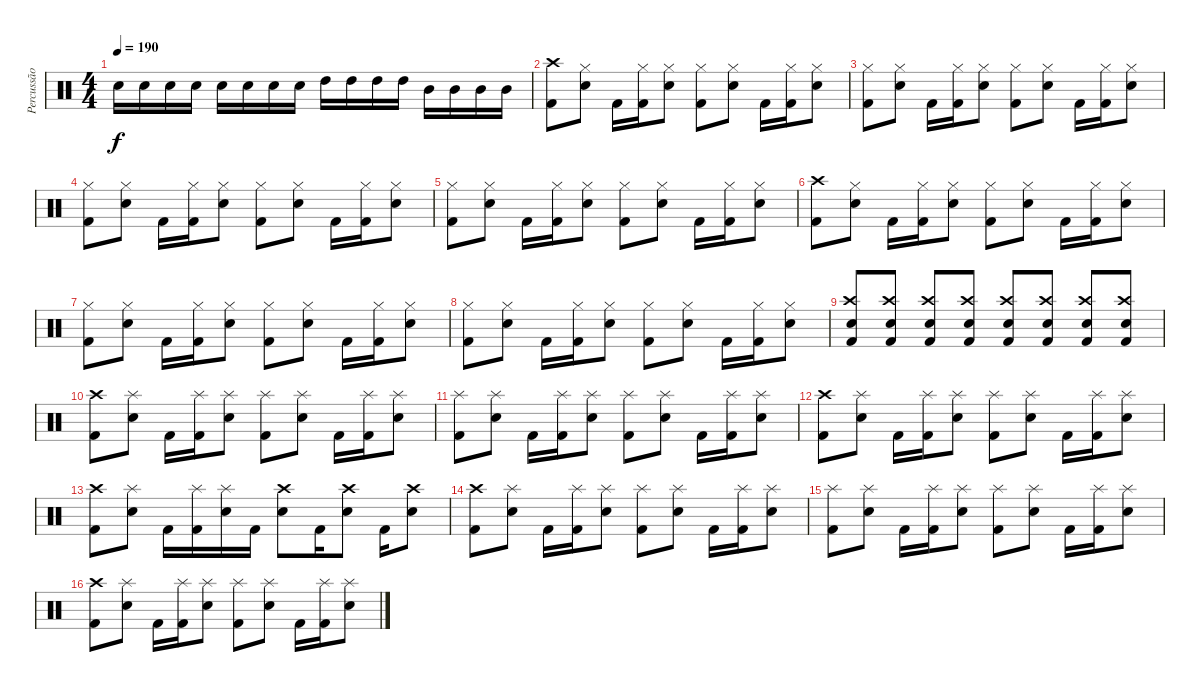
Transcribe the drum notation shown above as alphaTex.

\track ("Percussão" "Percussão") {instrument percussion}
\staff {score}
\articulation defaults
\ts (4 4)
\tempo 190
\clef neutral
\ks c "Electric Snare (hit)".16{dy f} "Electric Snare (hit)".16 "Electric Snare (hit)".16 "Electric Snare (hit)".16 "Electric Snare (hit)".16 "Electric Snare (hit)".16 "Electric Snare (hit)".16 "Electric Snare (hit)".16 "High Tom (hit)".16 "High Tom (hit)".16 "High Tom (hit)".16 "High Tom (hit)".16 "Mid Tom (hit)".16 "Mid Tom (hit)".16 "Mid Tom (hit)".16 "Mid Tom (hit)".16
|
("Crash high (hit)" "Kick (hit) 2").8 ("Hi-Hat (closed)" "Electric Snare (hit)").8 "Kick (hit) 2".16 ("Hi-Hat (closed)" "Kick (hit) 2").16 ("Hi-Hat (closed)" "Electric Snare (hit)").8 ("Hi-Hat (closed)" "Kick (hit) 2").8 ("Hi-Hat (closed)" "Electric Snare (hit)").8 "Kick (hit) 2".16 ("Hi-Hat (closed)" "Kick (hit) 2").16 ("Hi-Hat (closed)" "Electric Snare (hit)").8 |
("Hi-Hat (closed)" "Kick (hit) 2").8 ("Hi-Hat (closed)" "Electric Snare (hit)").8 "Kick (hit) 2".16 ("Hi-Hat (closed)" "Kick (hit) 2").16 ("Hi-Hat (closed)" "Electric Snare (hit)").8 ("Hi-Hat (closed)" "Kick (hit) 2").8 ("Hi-Hat (closed)" "Electric Snare (hit)").8 "Kick (hit) 2".16 ("Hi-Hat (closed)" "Kick (hit) 2").16 ("Hi-Hat (closed)" "Electric Snare (hit)").8 |
("Hi-Hat (closed)" "Kick (hit) 2").8 ("Hi-Hat (closed)" "Electric Snare (hit)").8 "Kick (hit) 2".16 ("Hi-Hat (closed)" "Kick (hit) 2").16 ("Hi-Hat (closed)" "Electric Snare (hit)").8 ("Hi-Hat (closed)" "Kick (hit) 2").8 ("Hi-Hat (closed)" "Electric Snare (hit)").8 "Kick (hit) 2".16 ("Hi-Hat (closed)" "Kick (hit) 2").16 ("Hi-Hat (closed)" "Electric Snare (hit)").8 |
("Hi-Hat (closed)" "Kick (hit) 2").8 ("Hi-Hat (closed)" "Electric Snare (hit)").8 "Kick (hit) 2".16 ("Hi-Hat (closed)" "Kick (hit) 2").16 ("Hi-Hat (closed)" "Electric Snare (hit)").8 ("Hi-Hat (closed)" "Kick (hit) 2").8 ("Hi-Hat (closed)" "Electric Snare (hit)").8 "Kick (hit) 2".16 ("Hi-Hat (closed)" "Kick (hit) 2").16 ("Hi-Hat (closed)" "Electric Snare (hit)").8 |
("Crash high (hit)" "Kick (hit) 2").8 ("Hi-Hat (closed)" "Electric Snare (hit)").8 "Kick (hit) 2".16 ("Hi-Hat (closed)" "Kick (hit) 2").16 ("Hi-Hat (closed)" "Electric Snare (hit)").8 ("Hi-Hat (closed)" "Kick (hit) 2").8 ("Hi-Hat (closed)" "Electric Snare (hit)").8 "Kick (hit) 2".16 ("Hi-Hat (closed)" "Kick (hit) 2").16 ("Hi-Hat (closed)" "Electric Snare (hit)").8 |
("Hi-Hat (closed)" "Kick (hit) 2").8 ("Hi-Hat (closed)" "Electric Snare (hit)").8 "Kick (hit) 2".16 ("Hi-Hat (closed)" "Kick (hit) 2").16 ("Hi-Hat (closed)" "Electric Snare (hit)").8 ("Hi-Hat (closed)" "Kick (hit) 2").8 ("Hi-Hat (closed)" "Electric Snare (hit)").8 "Kick (hit) 2".16 ("Hi-Hat (closed)" "Kick (hit) 2").16 ("Hi-Hat (closed)" "Electric Snare (hit)").8 |
("Hi-Hat (closed)" "Kick (hit) 2").8 ("Hi-Hat (closed)" "Electric Snare (hit)").8 "Kick (hit) 2".16 ("Hi-Hat (closed)" "Kick (hit) 2").16 ("Hi-Hat (closed)" "Electric Snare (hit)").8 ("Hi-Hat (closed)" "Kick (hit) 2").8 ("Hi-Hat (closed)" "Electric Snare (hit)").8 "Kick (hit) 2".16 ("Hi-Hat (closed)" "Kick (hit) 2").16 ("Hi-Hat (closed)" "Electric Snare (hit)").8 |
("Crash high (hit)" "Electric Snare (hit)" "Kick (hit) 2").8 ("Crash high (hit)" "Electric Snare (hit)" "Kick (hit) 2").8 ("Crash high (hit)" "Electric Snare (hit)" "Kick (hit) 2").8 ("Crash high (hit)" "Electric Snare (hit)" "Kick (hit) 2").8 ("Crash high (hit)" "Electric Snare (hit)" "Kick (hit) 2").8 ("Crash high (hit)" "Electric Snare (hit)" "Kick (hit) 2").8 ("Crash high (hit)" "Electric Snare (hit)" "Kick (hit) 2").8 ("Crash high (hit)" "Electric Snare (hit)" "Kick (hit) 2").8 |
("Crash high (hit)" "Kick (hit) 2").8 ("Splash (hit)" "Electric Snare (hit)").8 "Kick (hit) 2".16 ("Splash (hit)" "Kick (hit) 2").16 ("Splash (hit)" "Electric Snare (hit)").8 ("Splash (hit)" "Kick (hit) 2").8 ("Splash (hit)" "Electric Snare (hit)").8 "Kick (hit) 2".16 ("Splash (hit)" "Kick (hit) 2").16 ("Splash (hit)" "Electric Snare (hit)").8 |
("Splash (hit)" "Kick (hit) 2").8 ("Splash (hit)" "Electric Snare (hit)").8 "Kick (hit) 2".16 ("Splash (hit)" "Kick (hit) 2").16 ("Splash (hit)" "Electric Snare (hit)").8 ("Splash (hit)" "Kick (hit) 2").8 ("Splash (hit)" "Electric Snare (hit)").8 "Kick (hit) 2".16 ("Splash (hit)" "Kick (hit) 2").16 ("Splash (hit)" "Electric Snare (hit)").8 |
("Crash high (hit)" "Kick (hit) 2").8 ("Splash (hit)" "Electric Snare (hit)").8 "Kick (hit) 2".16 ("Splash (hit)" "Kick (hit) 2").16 ("Splash (hit)" "Electric Snare (hit)").8 ("Splash (hit)" "Kick (hit) 2").8 ("Splash (hit)" "Electric Snare (hit)").8 "Kick (hit) 2".16 ("Splash (hit)" "Kick (hit) 2").16 ("Splash (hit)" "Electric Snare (hit)").8 |
("Crash high (hit)" "Kick (hit) 2").8 ("Splash (hit)" "Electric Snare (hit)").8 "Kick (hit) 2".16 ("Splash (hit)" "Kick (hit) 2").16 ("Splash (hit)" "Electric Snare (hit)").16 "Kick (hit) 2".16 ("Crash high (hit)" "Electric Snare (hit)").8 "Kick (hit) 2".16 ("Crash high (hit)" "Electric Snare (hit)").8 "Kick (hit) 2".16 ("Crash high (hit)" "Electric Snare (hit)").8 |
("Crash high (hit)" "Kick (hit) 2").8 ("Splash (hit)" "Electric Snare (hit)").8 "Kick (hit) 2".16 ("Splash (hit)" "Kick (hit) 2").16 ("Splash (hit)" "Electric Snare (hit)").8 ("Splash (hit)" "Kick (hit) 2").8 ("Splash (hit)" "Electric Snare (hit)").8 "Kick (hit) 2".16 ("Splash (hit)" "Kick (hit) 2").16 ("Splash (hit)" "Electric Snare (hit)").8 |
("Splash (hit)" "Kick (hit) 2").8 ("Splash (hit)" "Electric Snare (hit)").8 "Kick (hit) 2".16 ("Splash (hit)" "Kick (hit) 2").16 ("Splash (hit)" "Electric Snare (hit)").8 ("Splash (hit)" "Kick (hit) 2").8 ("Splash (hit)" "Electric Snare (hit)").8 "Kick (hit) 2".16 ("Splash (hit)" "Kick (hit) 2").16 ("Splash (hit)" "Electric Snare (hit)").8 |
("Crash high (hit)" "Kick (hit) 2").8 ("Splash (hit)" "Electric Snare (hit)").8 "Kick (hit) 2".16 ("Splash (hit)" "Kick (hit) 2").16 ("Splash (hit)" "Electric Snare (hit)").8 ("Splash (hit)" "Kick (hit) 2").8 ("Splash (hit)" "Electric Snare (hit)").8 "Kick (hit) 2".16 ("Splash (hit)" "Kick (hit) 2").16 ("Splash (hit)" "Electric Snare (hit)").8
